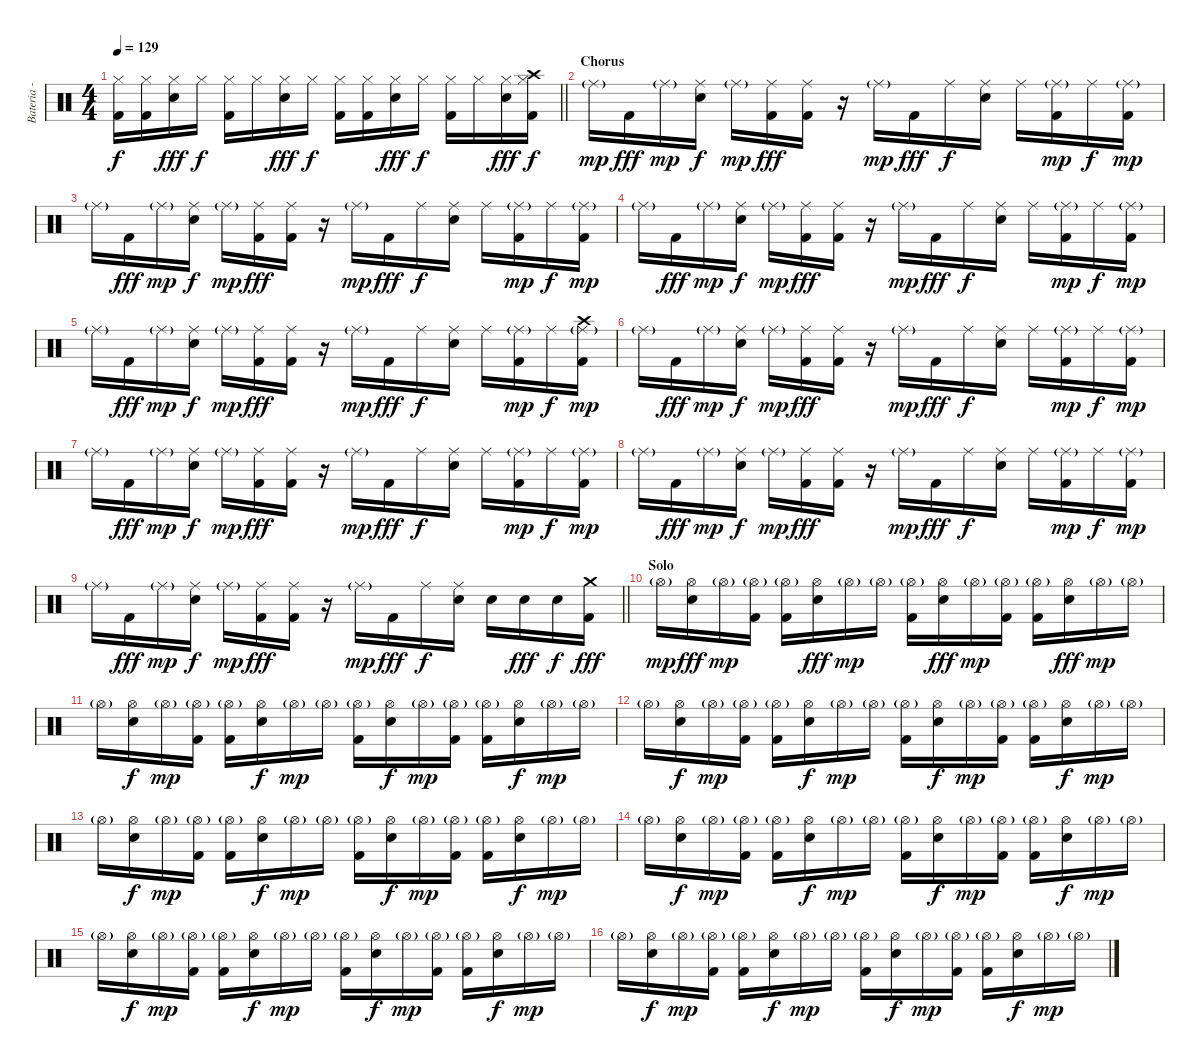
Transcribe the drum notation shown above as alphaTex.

\track ("Bateria - Larzon" "Bateria - ") {instrument percussion}
\staff {score}
\articulation defaults
\ts (4 4)
\tempo 129
\clef neutral
\barLineRight lightlight
\ks c
("Kick (hit) 2" "Hi-Hat (closed)").16{dy f} ("Kick (hit) 2" "Hi-Hat (closed)").16 ("Electric Snare (hit)" "Hi-Hat (closed)").16{dy fff} "Hi-Hat (closed)".16{dy f} ("Kick (hit) 2" "Hi-Hat (closed)").16 "Hi-Hat (closed)".16 ("Electric Snare (hit)" "Hi-Hat (closed)").16{dy fff} "Hi-Hat (closed)".16{dy f} ("Kick (hit) 2" "Hi-Hat (closed)").16 ("Kick (hit) 2" "Hi-Hat (closed)").16 ("Electric Snare (hit)" "Hi-Hat (closed)").16{dy fff} "Hi-Hat (closed)".16{dy f} ("Kick (hit) 2" "Hi-Hat (closed)").16 "Hi-Hat (closed)".16 ("Electric Snare (hit)" "Hi-Hat (closed)").16{dy fff} ("Crash high (hit)" "Kick (hit) 2" "Hi-Hat (closed)").16{dy f} |
\section ("" "Chorus")
"Ride (middle)"{g}.16{dy mp} "Kick (hit) 2".16{dy fff} "Ride (middle)"{g}.16{dy mp} ("Electric Snare (hit)" "Ride (middle)").16{dy f} "Ride (middle)"{g}.16{dy mp} ("Kick (hit) 2" "Ride (middle)").16{dy fff} ("Kick (hit) 2" "Ride (middle)").16 r.16 "Ride (middle)"{g}.16{dy mp} "Kick (hit) 2".16{dy fff} "Ride (middle)".16{dy f} ("Electric Snare (hit)" "Ride (middle)").16 "Ride (middle)".16 ("Kick (hit) 2" "Ride (middle)"{g}).16{dy mp} "Ride (middle)".16{dy f} ("Kick (hit) 2" "Ride (middle)"{g}).16{dy mp} |
"Ride (middle)"{g}.16 "Kick (hit) 2".16{dy fff} "Ride (middle)"{g}.16{dy mp} ("Electric Snare (hit)" "Ride (middle)").16{dy f} "Ride (middle)"{g}.16{dy mp} ("Kick (hit) 2" "Ride (middle)").16{dy fff} ("Kick (hit) 2" "Ride (middle)").16 r.16 "Ride (middle)"{g}.16{dy mp} "Kick (hit) 2".16{dy fff} "Ride (middle)".16{dy f} ("Electric Snare (hit)" "Ride (middle)").16 "Ride (middle)".16 ("Kick (hit) 2" "Ride (middle)"{g}).16{dy mp} "Ride (middle)".16{dy f} ("Kick (hit) 2" "Ride (middle)"{g}).16{dy mp} |
"Ride (middle)"{g}.16 "Kick (hit) 2".16{dy fff} "Ride (middle)"{g}.16{dy mp} ("Electric Snare (hit)" "Ride (middle)").16{dy f} "Ride (middle)"{g}.16{dy mp} ("Kick (hit) 2" "Ride (middle)").16{dy fff} ("Kick (hit) 2" "Ride (middle)").16 r.16 "Ride (middle)"{g}.16{dy mp} "Kick (hit) 2".16{dy fff} "Ride (middle)".16{dy f} ("Electric Snare (hit)" "Ride (middle)").16 "Ride (middle)".16 ("Kick (hit) 2" "Ride (middle)"{g}).16{dy mp} "Ride (middle)".16{dy f} ("Kick (hit) 2" "Ride (middle)"{g}).16{dy mp} |
"Ride (middle)"{g}.16 "Kick (hit) 2".16{dy fff} "Ride (middle)"{g}.16{dy mp} ("Electric Snare (hit)" "Ride (middle)").16{dy f} "Ride (middle)"{g}.16{dy mp} ("Kick (hit) 2" "Ride (middle)").16{dy fff} ("Kick (hit) 2" "Ride (middle)").16 r.16 "Ride (middle)"{g}.16{dy mp} "Kick (hit) 2".16{dy fff} "Ride (middle)".16{dy f} ("Electric Snare (hit)" "Ride (middle)").16 "Ride (middle)".16 ("Kick (hit) 2" "Ride (middle)"{g}).16{dy mp} "Ride (middle)".16{dy f} ("Kick (hit) 2" "Crash high (hit)" "Ride (middle)"{g}).16{dy mp} |
"Ride (middle)"{g}.16 "Kick (hit) 2".16{dy fff} "Ride (middle)"{g}.16{dy mp} ("Electric Snare (hit)" "Ride (middle)").16{dy f} "Ride (middle)"{g}.16{dy mp} ("Kick (hit) 2" "Ride (middle)").16{dy fff} ("Kick (hit) 2" "Ride (middle)").16 r.16 "Ride (middle)"{g}.16{dy mp} "Kick (hit) 2".16{dy fff} "Ride (middle)".16{dy f} ("Electric Snare (hit)" "Ride (middle)").16 "Ride (middle)".16 ("Kick (hit) 2" "Ride (middle)"{g}).16{dy mp} "Ride (middle)".16{dy f} ("Kick (hit) 2" "Ride (middle)"{g}).16{dy mp} |
"Ride (middle)"{g}.16 "Kick (hit) 2".16{dy fff} "Ride (middle)"{g}.16{dy mp} ("Electric Snare (hit)" "Ride (middle)").16{dy f} "Ride (middle)"{g}.16{dy mp} ("Kick (hit) 2" "Ride (middle)").16{dy fff} ("Kick (hit) 2" "Ride (middle)").16 r.16 "Ride (middle)"{g}.16{dy mp} "Kick (hit) 2".16{dy fff} "Ride (middle)".16{dy f} ("Electric Snare (hit)" "Ride (middle)").16 "Ride (middle)".16 ("Kick (hit) 2" "Ride (middle)"{g}).16{dy mp} "Ride (middle)".16{dy f} ("Kick (hit) 2" "Ride (middle)"{g}).16{dy mp} |
"Ride (middle)"{g}.16 "Kick (hit) 2".16{dy fff} "Ride (middle)"{g}.16{dy mp} ("Electric Snare (hit)" "Ride (middle)").16{dy f} "Ride (middle)"{g}.16{dy mp} ("Kick (hit) 2" "Ride (middle)").16{dy fff} ("Kick (hit) 2" "Ride (middle)").16 r.16 "Ride (middle)"{g}.16{dy mp} "Kick (hit) 2".16{dy fff} "Ride (middle)".16{dy f} ("Electric Snare (hit)" "Ride (middle)").16 "Ride (middle)".16 ("Kick (hit) 2" "Ride (middle)"{g}).16{dy mp} "Ride (middle)".16{dy f} ("Kick (hit) 2" "Ride (middle)"{g}).16{dy mp} |
\barLineRight lightlight "Ride (middle)"{g}.16 "Kick (hit) 2".16{dy fff} "Ride (middle)"{g}.16{dy mp}
("Electric Snare (hit)" "Ride (middle)").16{dy f} "Ride (middle)"{g}.16{dy mp} ("Kick (hit) 2" "Ride (middle)").16{dy fff} ("Kick (hit) 2" "Ride (middle)").16 r.16 "Ride (middle)"{g}.16{dy mp} "Kick (hit) 2".16{dy fff} "Ride (middle)".16{dy f} ("Electric Snare (hit)" "Ride (middle)").16 "Electric Snare (hit)".16 "Electric Snare (hit)".16{dy fff} "Electric Snare (hit)".16{dy f} ("Kick (hit) 2" "Crash medium (hit)").16{dy fff} |
\section ("" "Solo")
"Hi-Hat (open)"{g}.16{dy mp} ("Electric Snare (hit)" "Hi-Hat (open)").16{dy fff} "Hi-Hat (open)"{g}.16{dy mp} ("Kick (hit) 2" "Hi-Hat (open)"{g}).16 ("Kick (hit) 2" "Hi-Hat (open)"{g}).16 ("Electric Snare (hit)" "Hi-Hat (open)").16{dy fff} "Hi-Hat (open)"{g}.16{dy mp} "Hi-Hat (open)"{g}.16 ("Kick (hit) 2" "Hi-Hat (open)"{g}).16 ("Electric Snare (hit)" "Hi-Hat (open)").16{dy fff} "Hi-Hat (open)"{g}.16{dy mp} ("Kick (hit) 2" "Hi-Hat (open)"{g}).16 ("Kick (hit) 2" "Hi-Hat (open)"{g}).16 ("Electric Snare (hit)" "Hi-Hat (open)").16{dy fff} "Hi-Hat (open)"{g}.16{dy mp} "Hi-Hat (open)"{g}.16 |
"Hi-Hat (open)"{g}.16 ("Electric Snare (hit)" "Hi-Hat (open)").16{dy f} "Hi-Hat (open)"{g}.16{dy mp} ("Kick (hit) 2" "Hi-Hat (open)"{g}).16 ("Kick (hit) 2" "Hi-Hat (open)"{g}).16 ("Electric Snare (hit)" "Hi-Hat (open)").16{dy f} "Hi-Hat (open)"{g}.16{dy mp} "Hi-Hat (open)"{g}.16 ("Kick (hit) 2" "Hi-Hat (open)"{g}).16 ("Electric Snare (hit)" "Hi-Hat (open)").16{dy f} "Hi-Hat (open)"{g}.16{dy mp} ("Kick (hit) 2" "Hi-Hat (open)"{g}).16 ("Kick (hit) 2" "Hi-Hat (open)"{g}).16 ("Electric Snare (hit)" "Hi-Hat (open)").16{dy f} "Hi-Hat (open)"{g}.16{dy mp} "Hi-Hat (open)"{g}.16 |
"Hi-Hat (open)"{g}.16 ("Electric Snare (hit)" "Hi-Hat (open)").16{dy f} "Hi-Hat (open)"{g}.16{dy mp} ("Kick (hit) 2" "Hi-Hat (open)"{g}).16 ("Kick (hit) 2" "Hi-Hat (open)"{g}).16 ("Electric Snare (hit)" "Hi-Hat (open)").16{dy f} "Hi-Hat (open)"{g}.16{dy mp} "Hi-Hat (open)"{g}.16 ("Kick (hit) 2" "Hi-Hat (open)"{g}).16 ("Electric Snare (hit)" "Hi-Hat (open)").16{dy f} "Hi-Hat (open)"{g}.16{dy mp} ("Kick (hit) 2" "Hi-Hat (open)"{g}).16 ("Kick (hit) 2" "Hi-Hat (open)"{g}).16 ("Electric Snare (hit)" "Hi-Hat (open)").16{dy f} "Hi-Hat (open)"{g}.16{dy mp} "Hi-Hat (open)"{g}.16 |
"Hi-Hat (open)"{g}.16 ("Electric Snare (hit)" "Hi-Hat (open)").16{dy f} "Hi-Hat (open)"{g}.16{dy mp} ("Kick (hit) 2" "Hi-Hat (open)"{g}).16 ("Kick (hit) 2" "Hi-Hat (open)"{g}).16 ("Electric Snare (hit)" "Hi-Hat (open)").16{dy f} "Hi-Hat (open)"{g}.16{dy mp} "Hi-Hat (open)"{g}.16 ("Kick (hit) 2" "Hi-Hat (open)"{g}).16 ("Electric Snare (hit)" "Hi-Hat (open)").16{dy f} "Hi-Hat (open)"{g}.16{dy mp} ("Kick (hit) 2" "Hi-Hat (open)"{g}).16 ("Kick (hit) 2" "Hi-Hat (open)"{g}).16 ("Electric Snare (hit)" "Hi-Hat (open)").16{dy f} "Hi-Hat (open)"{g}.16{dy mp} "Hi-Hat (open)"{g}.16 |
"Hi-Hat (open)"{g}.16 ("Electric Snare (hit)" "Hi-Hat (open)").16{dy f} "Hi-Hat (open)"{g}.16{dy mp} ("Kick (hit) 2" "Hi-Hat (open)"{g}).16 ("Kick (hit) 2" "Hi-Hat (open)"{g}).16 ("Electric Snare (hit)" "Hi-Hat (open)").16{dy f} "Hi-Hat (open)"{g}.16{dy mp} "Hi-Hat (open)"{g}.16 ("Kick (hit) 2" "Hi-Hat (open)"{g}).16 ("Electric Snare (hit)" "Hi-Hat (open)").16{dy f} "Hi-Hat (open)"{g}.16{dy mp} ("Kick (hit) 2" "Hi-Hat (open)"{g}).16 ("Kick (hit) 2" "Hi-Hat (open)"{g}).16 ("Electric Snare (hit)" "Hi-Hat (open)").16{dy f} "Hi-Hat (open)"{g}.16{dy mp} "Hi-Hat (open)"{g}.16 |
"Hi-Hat (open)"{g}.16 ("Electric Snare (hit)" "Hi-Hat (open)").16{dy f} "Hi-Hat (open)"{g}.16{dy mp} ("Kick (hit) 2" "Hi-Hat (open)"{g}).16 ("Kick (hit) 2" "Hi-Hat (open)"{g}).16 ("Electric Snare (hit)" "Hi-Hat (open)").16{dy f} "Hi-Hat (open)"{g}.16{dy mp} "Hi-Hat (open)"{g}.16 ("Kick (hit) 2" "Hi-Hat (open)"{g}).16 ("Electric Snare (hit)" "Hi-Hat (open)").16{dy f} "Hi-Hat (open)"{g}.16{dy mp} ("Kick (hit) 2" "Hi-Hat (open)"{g}).16 ("Kick (hit) 2" "Hi-Hat (open)"{g}).16 ("Electric Snare (hit)" "Hi-Hat (open)").16{dy f} "Hi-Hat (open)"{g}.16{dy mp} "Hi-Hat (open)"{g}.16 |
"Hi-Hat (open)"{g}.16 ("Electric Snare (hit)" "Hi-Hat (open)").16{dy f} "Hi-Hat (open)"{g}.16{dy mp} ("Kick (hit) 2" "Hi-Hat (open)"{g}).16 ("Kick (hit) 2" "Hi-Hat (open)"{g}).16 ("Electric Snare (hit)" "Hi-Hat (open)").16{dy f} "Hi-Hat (open)"{g}.16{dy mp} "Hi-Hat (open)"{g}.16 ("Kick (hit) 2" "Hi-Hat (open)"{g}).16 ("Electric Snare (hit)" "Hi-Hat (open)").16{dy f} "Hi-Hat (open)"{g}.16{dy mp} ("Kick (hit) 2" "Hi-Hat (open)"{g}).16 ("Kick (hit) 2" "Hi-Hat (open)"{g}).16 ("Electric Snare (hit)" "Hi-Hat (open)").16{dy f} "Hi-Hat (open)"{g}.16{dy mp} "Hi-Hat (open)"{g}.16
